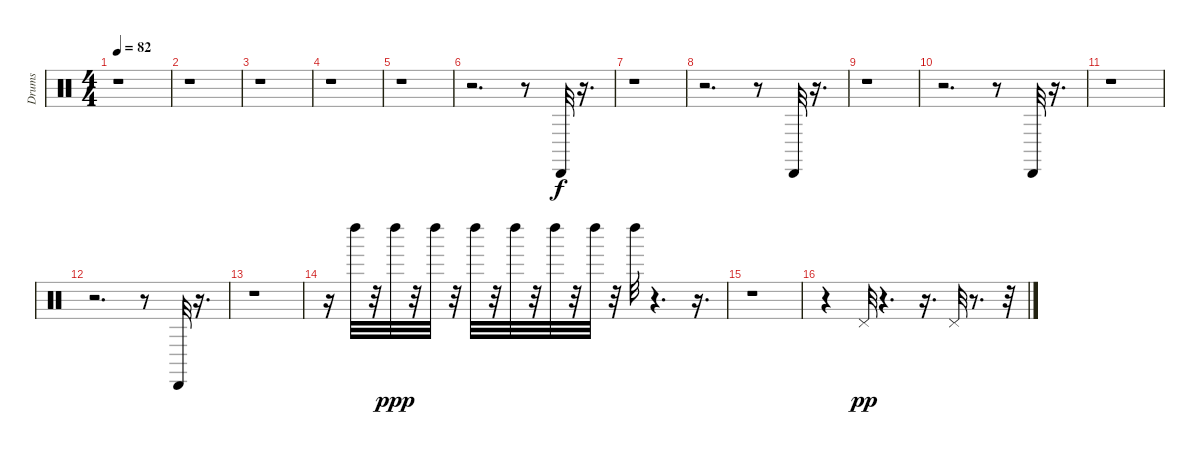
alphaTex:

\track ("Drums" "Drums") {instrument percussion}
\staff {score}
\articulation defaults
\ts (4 4)
\tempo 82
\clef neutral
\ks c
r.1{dy f} |
r.1 |
r.1 |
r.1 |
r.1 |
r.2{d} r.8 "Cabasa (hit)".32 r.16{d} |
r.1 |
r.2{d} r.8 "Cabasa (hit)".32 r.16{d} |
r.1 |
r.2{d} r.8 "Cabasa (hit)".32 r.16{d} |
r.1 |
r.2{d} r.8 "Cabasa (hit)".32 r.16{d} |
r.1 |
r.16 "Left Maraca (hit)".32 r.32 "Left Maraca (hit)".32{dy ppp} r.32 "Left Maraca (hit)".32 r.32 "Left Maraca (hit)".32 r.32 "Left Maraca (hit)".32 r.32 "Left Maraca (hit)".32 r.32 "Left Maraca (hit)".32 r.32 "Left Maraca (hit)".32 r.4{d} r.16{d} |
r.1 |
r.4 "Pedal Hi-Hat (hit)".32{dy pp} r.4{d} r.16{d} "Pedal Hi-Hat (hit)".32 r.8{d} r.32
